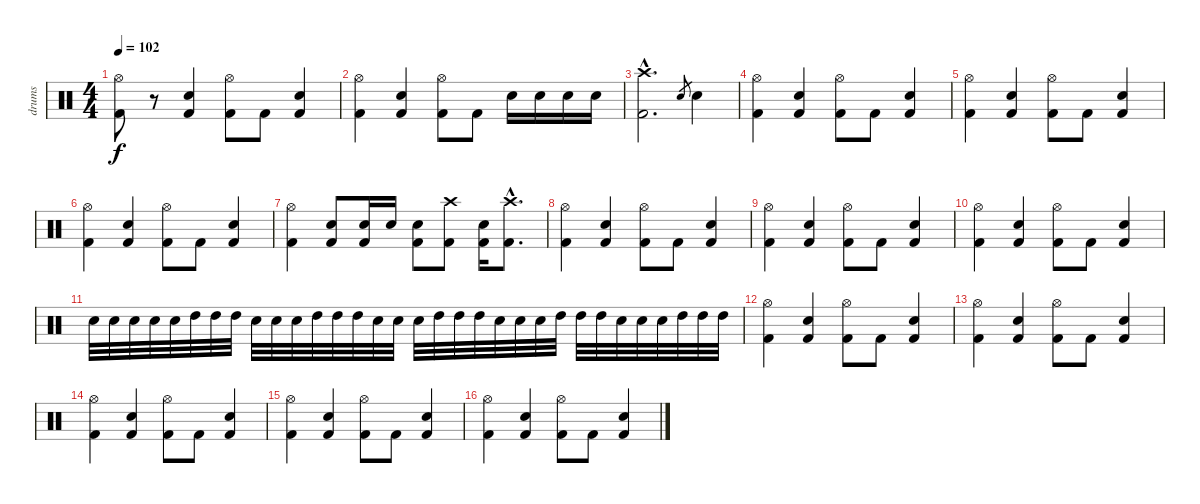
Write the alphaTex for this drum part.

\track ("drums" "drums") {instrument percussion}
\staff {score}
\articulation defaults
\ts (4 4)
\tempo 102
\clef neutral
\ks c
("Hi-Hat (open)" "Kick (hit) 2").8{dy f} r.8 ("Electric Snare (hit)" "Kick (hit) 2").4 ("Hi-Hat (open)" "Kick (hit) 2").8 "Kick (hit) 2".8 ("Electric Snare (hit)" "Kick (hit) 2").4 |
("Hi-Hat (open)" "Kick (hit) 2").4 ("Electric Snare (hit)" "Kick (hit) 2").4 ("Hi-Hat (open)" "Kick (hit) 2").8 "Kick (hit) 2".8 "Electric Snare (hit)".16 "Electric Snare (hit)".16 "Snare (hit) 2".16 "Snare (hit) 2".16 |
("Crash high (hit)"{hac} "Kick (hit) 2"{hac}).2{d} "Snare (hit) 2".8{gr} "Electric Snare (hit)".4 |
("Hi-Hat (open)" "Kick (hit) 2").4 ("Electric Snare (hit)" "Kick (hit) 2").4 ("Hi-Hat (open)" "Kick (hit) 2").8 "Kick (hit) 2".8 ("Electric Snare (hit)" "Kick (hit) 2").4 |
("Hi-Hat (open)" "Kick (hit) 2").4 ("Electric Snare (hit)" "Kick (hit) 2").4 ("Hi-Hat (open)" "Kick (hit) 2").8 "Kick (hit) 2".8 ("Electric Snare (hit)" "Kick (hit) 2").4 |
("Hi-Hat (open)" "Kick (hit) 2").4 ("Electric Snare (hit)" "Kick (hit) 2").4 ("Hi-Hat (open)" "Kick (hit) 2").8 "Kick (hit) 2".8 ("Electric Snare (hit)" "Kick (hit) 2").4 |
("Hi-Hat (open)" "Kick (hit) 2").4 ("Electric Snare (hit)" "Kick (hit) 2").8 ("Snare (hit) 2" "Kick (hit) 2").16 "Snare (hit) 2".16 ("Snare (hit) 2" "Kick (hit) 2").8 ("Crash high (hit)" "Kick (hit) 2").8 ("Snare (hit) 2" "Kick (hit) 2").16 ("Crash high (hit)"{hac} "Kick (hit) 2"{hac}).8{d} |
("Hi-Hat (open)" "Kick (hit) 2").4 ("Electric Snare (hit)" "Kick (hit) 2").4 ("Hi-Hat (open)" "Kick (hit) 2").8 "Kick (hit) 2".8 ("Electric Snare (hit)" "Kick (hit) 2").4 |
("Hi-Hat (open)" "Kick (hit) 2").4 ("Electric Snare (hit)" "Kick (hit) 2").4 ("Hi-Hat (open)" "Kick (hit) 2").8 "Kick (hit) 2".8 ("Electric Snare (hit)" "Kick (hit) 2").4 |
("Hi-Hat (open)" "Kick (hit) 2").4 ("Electric Snare (hit)" "Kick (hit) 2").4 ("Hi-Hat (open)" "Kick (hit) 2").8 "Kick (hit) 2".8 ("Electric Snare (hit)" "Kick (hit) 2").4 |
"Electric Snare (hit)".32 "Electric Snare (hit)".32 "Snare (hit) 2".32 "Snare (hit) 2".32 "Snare (hit) 2".32 "High Tom (hit)".32 "High Tom (hit)".32 "High Tom (hit)".32 "Snare (hit) 2".32 "Snare (hit) 2".32 "Snare (hit) 2".32 "High Tom (hit)".32 "High Tom (hit)".32 "High Tom (hit)".32 "Snare (hit) 2".32 "Snare (hit) 2".32 "Snare (hit) 2".32 "High Tom (hit)".32 "High Tom (hit)".32 "High Tom (hit)".32 "Snare (hit) 2".32 "Snare (hit) 2".32 "Snare (hit) 2".32 "High Tom (hit)".32 "High Tom (hit)".32 "High Tom (hit)".32 "Snare (hit) 2".32 "Snare (hit) 2".32 "Snare (hit) 2".32 "High Tom (hit)".32 "High Tom (hit)".32 "High Tom (hit)".32 |
("Hi-Hat (open)" "Kick (hit) 2").4 ("Electric Snare (hit)" "Kick (hit) 2").4 ("Hi-Hat (open)" "Kick (hit) 2").8 "Kick (hit) 2".8 ("Electric Snare (hit)" "Kick (hit) 2").4 |
("Hi-Hat (open)" "Kick (hit) 2").4 ("Electric Snare (hit)" "Kick (hit) 2").4 ("Hi-Hat (open)" "Kick (hit) 2").8 "Kick (hit) 2".8 ("Electric Snare (hit)" "Kick (hit) 2").4 |
("Hi-Hat (open)" "Kick (hit) 2").4 ("Electric Snare (hit)" "Kick (hit) 2").4 ("Hi-Hat (open)" "Kick (hit) 2").8 "Kick (hit) 2".8 ("Electric Snare (hit)" "Kick (hit) 2").4 |
("Hi-Hat (open)" "Kick (hit) 2").4 ("Electric Snare (hit)" "Kick (hit) 2").4 ("Hi-Hat (open)" "Kick (hit) 2").8 "Kick (hit) 2".8 ("Electric Snare (hit)" "Kick (hit) 2").4 |
("Hi-Hat (open)" "Kick (hit) 2").4 ("Electric Snare (hit)" "Kick (hit) 2").4 ("Hi-Hat (open)" "Kick (hit) 2").8 "Kick (hit) 2".8 ("Electric Snare (hit)" "Kick (hit) 2").4
